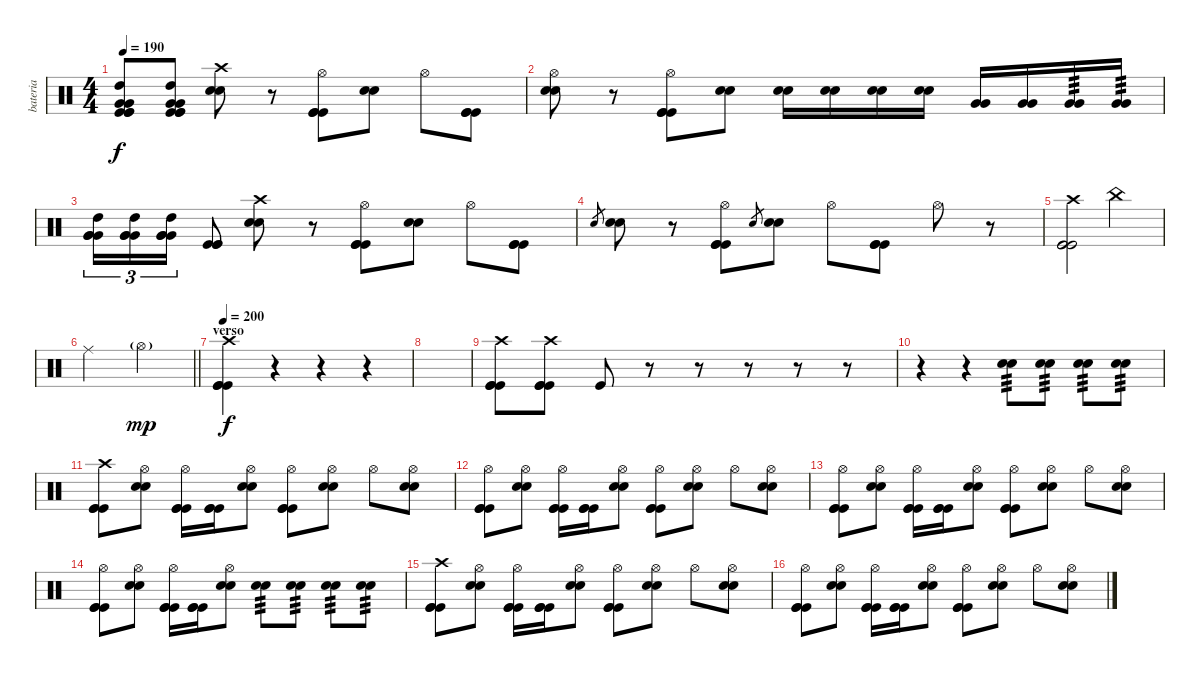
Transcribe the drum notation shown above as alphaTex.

\track ("bateria" "bateria") {instrument percussion}
\staff {score}
\articulation defaults
\ts (4 4)
\tempo 190
\clef neutral
\ks c
("Very Low Tom (hit)" "Very Low Tom (hit)" "High Tom (hit)" "Kick (hit)" "Kick (hit)" "Kick (hit)").8{dy f} ("Very Low Tom (hit)" "Very Low Tom (hit)" "High Tom (hit)" "Kick (hit)" "Kick (hit)" "Kick (hit)").8 ("Electric Snare (hit)" "Crash high (hit)" "Electric Snare (hit)").8 r.8 ("Hi-Hat (open)" "Kick (hit)" "Kick (hit)" "Kick (hit)").8 ("Electric Snare (hit)" "Electric Snare (hit)").8 "Hi-Hat (open)".8 ("Kick (hit)" "Kick (hit)" "Kick (hit)").8 |
("Electric Snare (hit)" "Hi-Hat (open)" "Electric Snare (hit)").8 r.8 ("Hi-Hat (open)" "Kick (hit)" "Kick (hit)" "Kick (hit)").8 ("Electric Snare (hit)" "Electric Snare (hit)").8 ("Electric Snare (hit)" "Electric Snare (hit)").16 ("Electric Snare (hit)" "Electric Snare (hit)").16 ("Electric Snare (hit)" "Electric Snare (hit)").16 ("Electric Snare (hit)" "Electric Snare (hit)").16 ("Very Low Tom (hit)" "Very Low Tom (hit)").16 ("Very Low Tom (hit)" "Very Low Tom (hit)").16 ("Very Low Tom (hit)" "Very Low Tom (hit)").16{tp 3} ("Very Low Tom (hit)" "Very Low Tom (hit)").16{tp 3} |
("High Tom (hit)" "Very Low Tom (hit)" "Very Low Tom (hit)" "Very Low Tom (hit)").16{tu (3 2)} ("High Tom (hit)" "Very Low Tom (hit)" "Very Low Tom (hit)" "Very Low Tom (hit)").16{tu (3 2)} ("High Tom (hit)" "Very Low Tom (hit)" "Very Low Tom (hit)" "Very Low Tom (hit)").16{tu (3 2)} ("Kick (hit)" "Kick (hit)" "Kick (hit)").8 ("Electric Snare (hit)" "Crash high (hit)" "Electric Snare (hit)").8 r.8 ("Hi-Hat (open)" "Kick (hit)" "Kick (hit)" "Kick (hit)").8 ("Electric Snare (hit)" "Electric Snare (hit)").8 "Hi-Hat (open)".8 ("Kick (hit)" "Kick (hit)" "Kick (hit)").8 |
"Electric Snare (hit)".8{gr} ("Electric Snare (hit)" "Electric Snare (hit)").8 r.8 ("Hi-Hat (open)" "Kick (hit)" "Kick (hit)" "Kick (hit)").8 "Electric Snare (hit)".8{gr} ("Electric Snare (hit)" "Electric Snare (hit)").8 "Hi-Hat (open)".8 ("Kick (hit)" "Kick (hit)" "Kick (hit)").8 "Hi-Hat (open)".8 r.8 |
("Kick (hit)" "Kick (hit)" "Kick (hit)" "Crash high (hit)").2 "China (hit)".2 |
\barLineRight lightlight "Ride (middle)".2 "Hi-Hat (open)"{g}.2{dy mp}
|
\section ("" "verso")
\tempo 200
("Kick (hit)" "Kick (hit)" "Kick (hit)" "Crash high (hit)").4{dy f} r.4 r.4 r.4 |
|
("Crash high (hit)" "Kick (hit)" "Kick (hit)" "Kick (hit)").8 ("Crash high (hit)" "Kick (hit)" "Kick (hit)" "Kick (hit)").8 "Kick (hit)".8{volume 0} r.8 r.8 r.8 r.8 r.8 |
r.4 r.4 ("Electric Snare (hit)" "Electric Snare (hit)").8{tp 3 volume 11} ("Electric Snare (hit)" "Electric Snare (hit)").8{tp 3} ("Electric Snare (hit)" "Electric Snare (hit)").8{tp 3 volume 11} ("Electric Snare (hit)" "Electric Snare (hit)").8{tp 3} |
("Crash high (hit)" "Kick (hit)" "Kick (hit)" "Kick (hit)").8 ("Electric Snare (hit)" "Hi-Hat (open)" "Electric Snare (hit)").8 ("Hi-Hat (open)" "Kick (hit)" "Kick (hit)" "Kick (hit)").16 ("Kick (hit)" "Kick (hit)" "Kick (hit)").16 ("Electric Snare (hit)" "Hi-Hat (open)" "Electric Snare (hit)").8 ("Hi-Hat (open)" "Kick (hit)" "Kick (hit)" "Kick (hit)").8 ("Electric Snare (hit)" "Hi-Hat (open)" "Electric Snare (hit)").8 "Hi-Hat (open)".8 ("Electric Snare (hit)" "Hi-Hat (open)" "Electric Snare (hit)").8 |
("Hi-Hat (open)" "Kick (hit)" "Kick (hit)" "Kick (hit)").8 ("Electric Snare (hit)" "Hi-Hat (open)" "Electric Snare (hit)").8 ("Hi-Hat (open)" "Kick (hit)" "Kick (hit)" "Kick (hit)").16 ("Kick (hit)" "Kick (hit)" "Kick (hit)").16 ("Electric Snare (hit)" "Hi-Hat (open)" "Electric Snare (hit)").8 ("Hi-Hat (open)" "Kick (hit)" "Kick (hit)" "Kick (hit)").8 ("Electric Snare (hit)" "Hi-Hat (open)" "Electric Snare (hit)").8 "Hi-Hat (open)".8 ("Electric Snare (hit)" "Hi-Hat (open)" "Electric Snare (hit)").8 |
("Hi-Hat (open)" "Kick (hit)" "Kick (hit)" "Kick (hit)").8 ("Electric Snare (hit)" "Hi-Hat (open)" "Electric Snare (hit)").8 ("Hi-Hat (open)" "Kick (hit)" "Kick (hit)" "Kick (hit)").16 ("Kick (hit)" "Kick (hit)" "Kick (hit)").16 ("Electric Snare (hit)" "Hi-Hat (open)" "Electric Snare (hit)").8 ("Hi-Hat (open)" "Kick (hit)" "Kick (hit)" "Kick (hit)").8 ("Electric Snare (hit)" "Hi-Hat (open)" "Electric Snare (hit)").8 "Hi-Hat (open)".8 ("Electric Snare (hit)" "Hi-Hat (open)" "Electric Snare (hit)").8 |
("Hi-Hat (open)" "Kick (hit)" "Kick (hit)" "Kick (hit)").8 ("Electric Snare (hit)" "Hi-Hat (open)" "Electric Snare (hit)").8 ("Hi-Hat (open)" "Kick (hit)" "Kick (hit)" "Kick (hit)").16 ("Kick (hit)" "Kick (hit)" "Kick (hit)").16 ("Electric Snare (hit)" "Hi-Hat (open)" "Electric Snare (hit)").8 ("Electric Snare (hit)" "Electric Snare (hit)").8{tp 3 volume 11} ("Electric Snare (hit)" "Electric Snare (hit)").8{tp 3} ("Electric Snare (hit)" "Electric Snare (hit)").8{tp 3 volume 11} ("Electric Snare (hit)" "Electric Snare (hit)").8{tp 3} |
("Crash high (hit)" "Kick (hit)" "Kick (hit)" "Kick (hit)").8 ("Electric Snare (hit)" "Hi-Hat (open)" "Electric Snare (hit)").8 ("Hi-Hat (open)" "Kick (hit)" "Kick (hit)" "Kick (hit)").16 ("Kick (hit)" "Kick (hit)" "Kick (hit)").16 ("Electric Snare (hit)" "Hi-Hat (open)" "Electric Snare (hit)").8 ("Hi-Hat (open)" "Kick (hit)" "Kick (hit)" "Kick (hit)").8 ("Electric Snare (hit)" "Hi-Hat (open)" "Electric Snare (hit)").8 "Hi-Hat (open)".8 ("Electric Snare (hit)" "Hi-Hat (open)" "Electric Snare (hit)").8 |
("Hi-Hat (open)" "Kick (hit)" "Kick (hit)" "Kick (hit)").8 ("Electric Snare (hit)" "Hi-Hat (open)" "Electric Snare (hit)").8 ("Hi-Hat (open)" "Kick (hit)" "Kick (hit)" "Kick (hit)").16 ("Kick (hit)" "Kick (hit)" "Kick (hit)").16 ("Electric Snare (hit)" "Hi-Hat (open)" "Electric Snare (hit)").8 ("Hi-Hat (open)" "Kick (hit)" "Kick (hit)" "Kick (hit)").8 ("Electric Snare (hit)" "Hi-Hat (open)" "Electric Snare (hit)").8 "Hi-Hat (open)".8 ("Electric Snare (hit)" "Hi-Hat (open)" "Electric Snare (hit)").8
